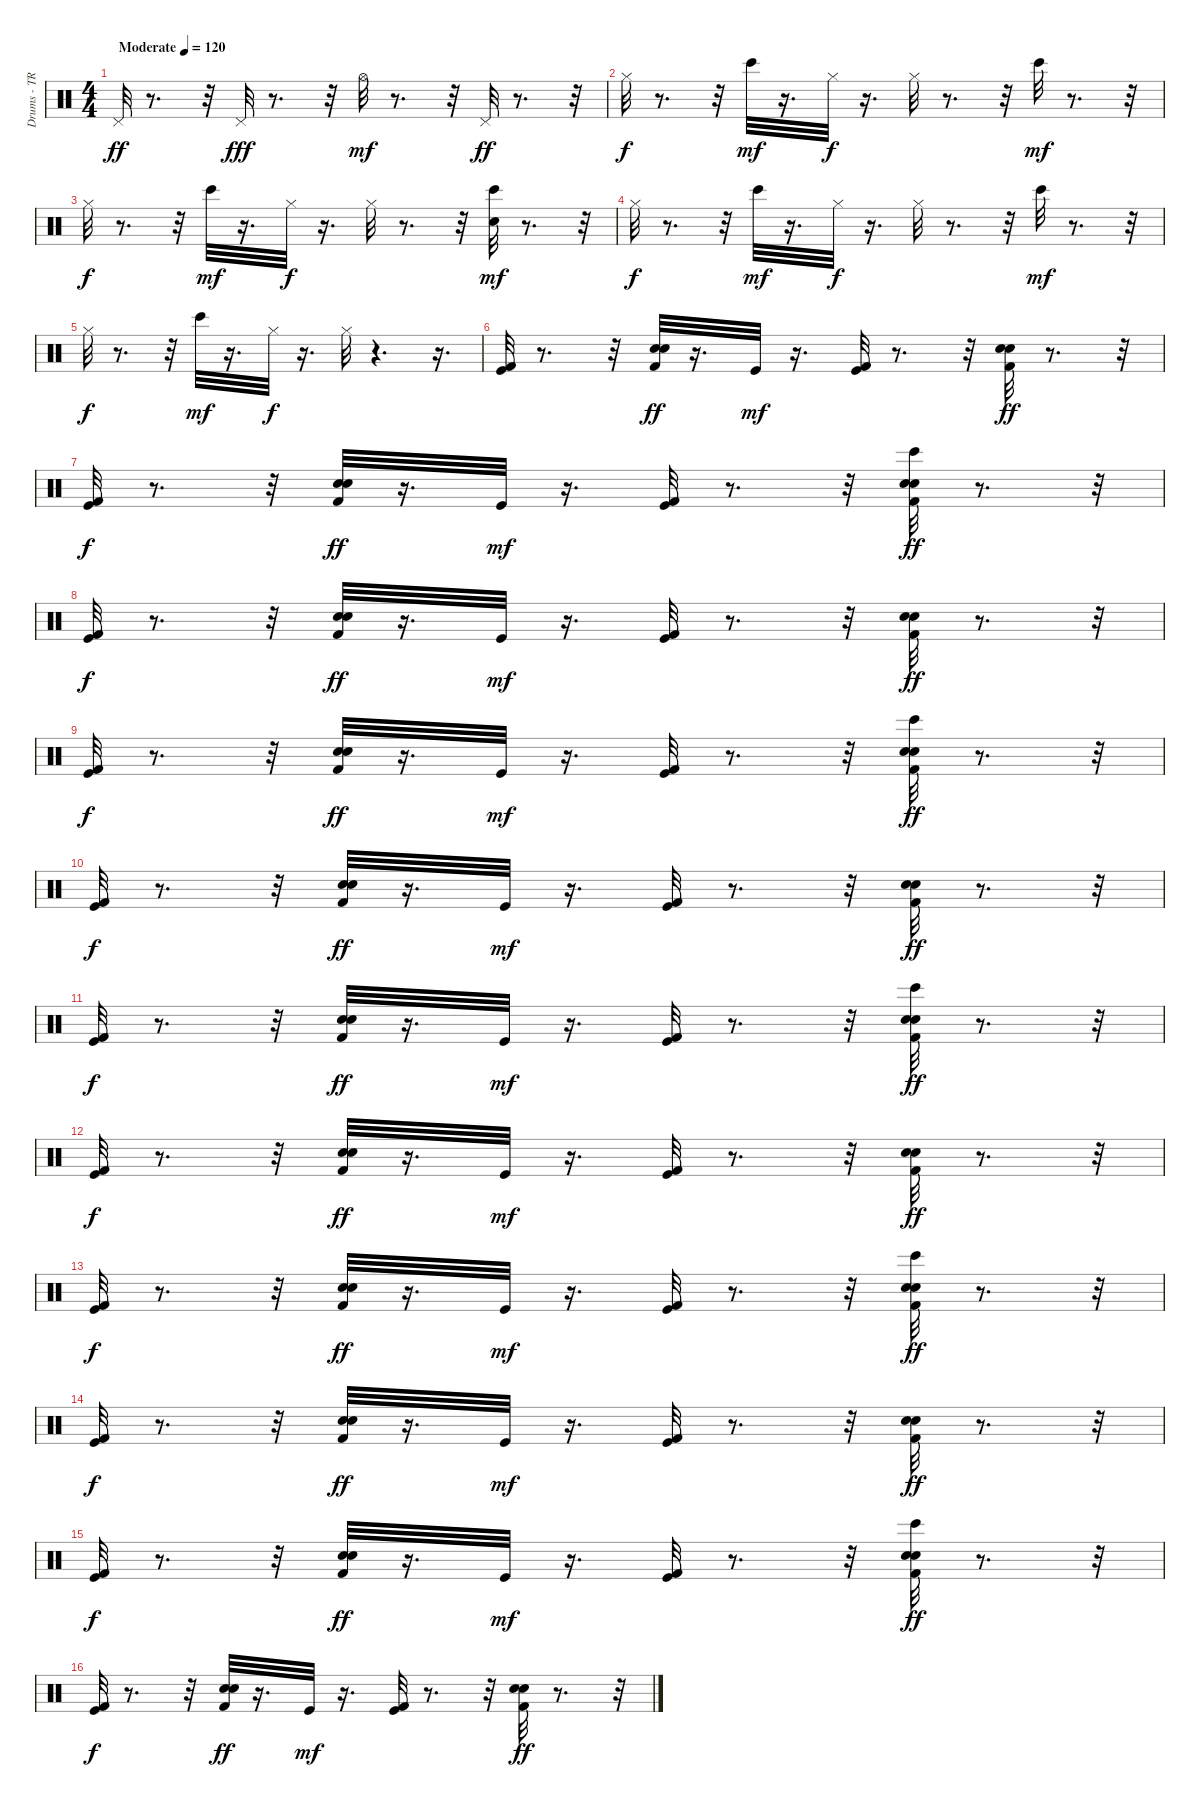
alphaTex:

\track ("Drums - TR" "Drums - TR") {instrument percussion}
\staff {score}
\articulation defaults
\ts (4 4)
\tempo (120 "Moderate")
\clef neutral
\ks c "Pedal Hi-Hat (hit)".32{dy ff}
r.8{d} r.32 "Pedal Hi-Hat (hit)".32{dy fff} r.8{d} r.32 "Hi-Hat (open)".32{dy mf} r.8{d} r.32 "Pedal Hi-Hat (hit)".32{dy ff} r.8{d} r.32 |
"Hi-Hat (closed)".32{dy f} r.8{d} r.32 "Bongo High (hit)".32{dy mf} r.16{d} "Hi-Hat (closed)".32{dy f} r.16{d} "Hi-Hat (closed)".32 r.8{d} r.32 "Bongo High (hit)".32{dy mf} r.8{d} r.32 |
"Hi-Hat (closed)".32{dy f} r.8{d} r.32 "Bongo High (hit)".32{dy mf} r.16{d} "Hi-Hat (closed)".32{dy f} r.16{d} "Hi-Hat (closed)".32 r.8{d} r.32 ("Hand Clap (hit)" "Bongo High (hit)").32{dy mf} r.8{d} r.32 |
"Hi-Hat (closed)".32{dy f} r.8{d} r.32 "Bongo High (hit)".32{dy mf} r.16{d} "Hi-Hat (closed)".32{dy f} r.16{d} "Hi-Hat (closed)".32 r.8{d} r.32 "Bongo High (hit)".32{dy mf} r.8{d} r.32 |
"Hi-Hat (closed)".32{dy f} r.8{d} r.32 "Bongo High (hit)".32{dy mf} r.16{d} "Hi-Hat (closed)".32{dy f} r.16{d} "Hi-Hat (closed)".32 r.4{d} r.16{d} |
("Kick (hit)" "Kick (hit) 2").32 r.8{d} r.32 ("Kick (hit) 2" "Snare (hit) 2" "Hand Clap (hit)").32{dy ff} r.16{d} "Kick (hit)".32{dy mf} r.16{d} ("Kick (hit)" "Kick (hit) 2").32 r.8{d} r.32 ("Kick (hit) 2" "Snare (hit) 2" "Hand Clap (hit)").32{dy ff} r.8{d} r.32 |
("Kick (hit)" "Kick (hit) 2").32{dy f} r.8{d} r.32 ("Kick (hit) 2" "Snare (hit) 2" "Hand Clap (hit)").32{dy ff} r.16{d} "Kick (hit)".32{dy mf} r.16{d} ("Kick (hit)" "Kick (hit) 2").32 r.8{d} r.32 ("Kick (hit) 2" "Snare (hit) 2" "Hand Clap (hit)" "Bongo High (hit)").32{dy ff} r.8{d} r.32 |
("Kick (hit)" "Kick (hit) 2").32{dy f} r.8{d} r.32 ("Kick (hit) 2" "Snare (hit) 2" "Hand Clap (hit)").32{dy ff} r.16{d} "Kick (hit)".32{dy mf} r.16{d} ("Kick (hit)" "Kick (hit) 2").32 r.8{d} r.32 ("Kick (hit) 2" "Snare (hit) 2" "Hand Clap (hit)").32{dy ff} r.8{d} r.32 |
("Kick (hit)" "Kick (hit) 2").32{dy f} r.8{d} r.32 ("Kick (hit) 2" "Snare (hit) 2" "Hand Clap (hit)").32{dy ff} r.16{d} "Kick (hit)".32{dy mf} r.16{d} ("Kick (hit)" "Kick (hit) 2").32 r.8{d} r.32 ("Kick (hit) 2" "Snare (hit) 2" "Hand Clap (hit)" "Bongo High (hit)").32{dy ff} r.8{d} r.32 |
("Kick (hit)" "Kick (hit) 2").32{dy f} r.8{d} r.32 ("Kick (hit) 2" "Snare (hit) 2" "Hand Clap (hit)").32{dy ff} r.16{d} "Kick (hit)".32{dy mf} r.16{d} ("Kick (hit)" "Kick (hit) 2").32 r.8{d} r.32 ("Kick (hit) 2" "Snare (hit) 2" "Hand Clap (hit)").32{dy ff} r.8{d} r.32 |
("Kick (hit)" "Kick (hit) 2").32{dy f} r.8{d} r.32 ("Kick (hit) 2" "Snare (hit) 2" "Hand Clap (hit)").32{dy ff} r.16{d} "Kick (hit)".32{dy mf} r.16{d} ("Kick (hit)" "Kick (hit) 2").32 r.8{d} r.32 ("Kick (hit) 2" "Snare (hit) 2" "Hand Clap (hit)" "Bongo High (hit)").32{dy ff} r.8{d} r.32 |
("Kick (hit)" "Kick (hit) 2").32{dy f} r.8{d} r.32 ("Kick (hit) 2" "Snare (hit) 2" "Hand Clap (hit)").32{dy ff} r.16{d} "Kick (hit)".32{dy mf} r.16{d} ("Kick (hit)" "Kick (hit) 2").32 r.8{d} r.32 ("Kick (hit) 2" "Snare (hit) 2" "Hand Clap (hit)").32{dy ff} r.8{d} r.32 |
("Kick (hit)" "Kick (hit) 2").32{dy f} r.8{d} r.32 ("Kick (hit) 2" "Snare (hit) 2" "Hand Clap (hit)").32{dy ff} r.16{d} "Kick (hit)".32{dy mf} r.16{d} ("Kick (hit)" "Kick (hit) 2").32 r.8{d} r.32 ("Kick (hit) 2" "Snare (hit) 2" "Hand Clap (hit)" "Bongo High (hit)").32{dy ff} r.8{d} r.32 |
("Kick (hit)" "Kick (hit) 2").32{dy f} r.8{d} r.32 ("Kick (hit) 2" "Snare (hit) 2" "Hand Clap (hit)").32{dy ff} r.16{d} "Kick (hit)".32{dy mf} r.16{d} ("Kick (hit)" "Kick (hit) 2").32 r.8{d} r.32 ("Kick (hit) 2" "Snare (hit) 2" "Hand Clap (hit)").32{dy ff} r.8{d} r.32 |
("Kick (hit)" "Kick (hit) 2").32{dy f} r.8{d} r.32 ("Kick (hit) 2" "Snare (hit) 2" "Hand Clap (hit)").32{dy ff} r.16{d} "Kick (hit)".32{dy mf} r.16{d} ("Kick (hit)" "Kick (hit) 2").32 r.8{d} r.32 ("Kick (hit) 2" "Snare (hit) 2" "Hand Clap (hit)" "Bongo High (hit)").32{dy ff} r.8{d} r.32 |
("Kick (hit)" "Kick (hit) 2").32{dy f} r.8{d} r.32 ("Kick (hit) 2" "Snare (hit) 2" "Hand Clap (hit)").32{dy ff} r.16{d} "Kick (hit)".32{dy mf} r.16{d} ("Kick (hit)" "Kick (hit) 2").32 r.8{d} r.32 ("Kick (hit) 2" "Snare (hit) 2" "Hand Clap (hit)").32{dy ff} r.8{d} r.32
